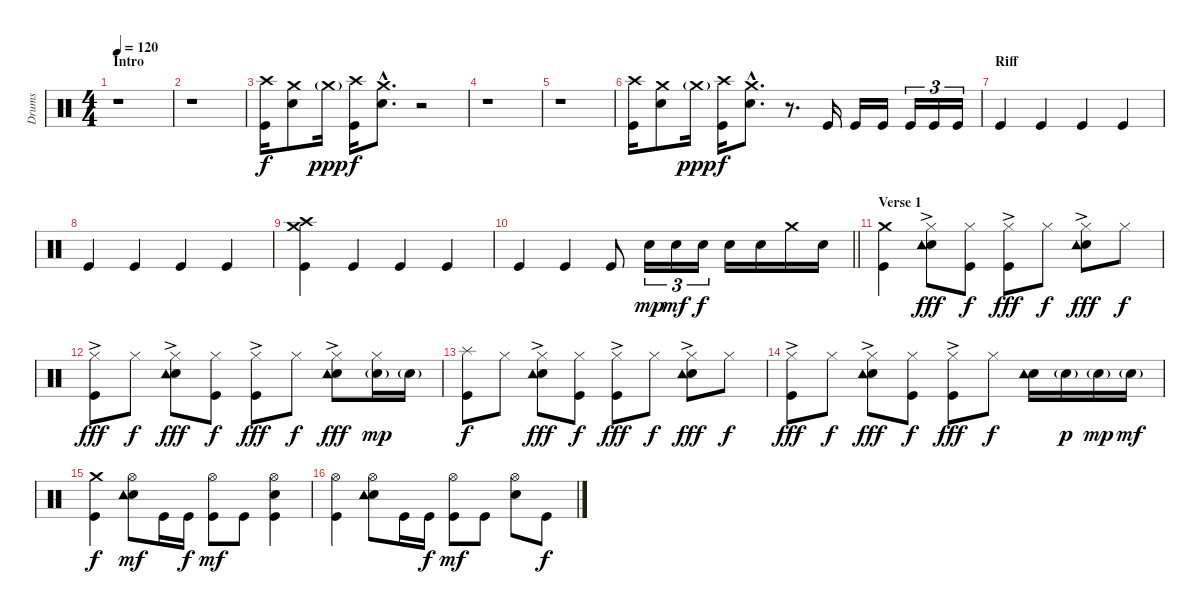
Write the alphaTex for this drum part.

\track ("Drums" "Drums") {instrument percussion}
\staff {score}
\articulation defaults
\ts (4 4)
\section ("" "Intro")
\tempo 120
\clef neutral
\ks c
r.1{dy f} |
r.1 |
("Crash high (hit)" "Kick (hit)").16 ("Crash medium (hit)" "Electric Snare (hit)").8 "Crash medium (hit)"{g}.16{dy ppp} ("Crash high (hit)" "Kick (hit)").16{dy f} ("Crash medium (hit)"{hac} "Electric Snare (hit)"{hac}).8{d} r.2 |
r.1 |
r.1 |
("Crash high (hit)" "Kick (hit)").16 ("Crash medium (hit)" "Electric Snare (hit)").8 "Crash medium (hit)"{g}.16{dy ppp} ("Crash high (hit)" "Kick (hit)").16{dy f} ("Crash medium (hit)"{hac} "Electric Snare (hit)"{hac}).8{d} r.8{d} "Kick (hit)".16 "Kick (hit)".16 "Kick (hit)".16 "Kick (hit)".16{tu (3 2)} "Kick (hit)".16{tu (3 2)} "Kick (hit)".16{tu (3 2)} |
\section ("" "Riff")
"Kick (hit)".4 "Kick (hit)".4 "Kick (hit)".4 "Kick (hit)".4 |
"Kick (hit)".4 "Kick (hit)".4 "Kick (hit)".4 "Kick (hit)".4 |
("Crash medium (hit)" "Crash high (hit)" "Kick (hit)").4 "Kick (hit)".4 "Kick (hit)".4 "Kick (hit)".4 |
\barLineRight lightlight "Kick (hit)".4 "Kick (hit)".4 "Kick (hit)".8 "Electric Snare (hit)".16{tu (3 2) dy mp} "Electric Snare (hit)".16{tu (3 2) dy mf} "Electric Snare (hit)".16{tu (3 2) dy f} "Electric Snare (hit)".16 "Electric Snare (hit)".16 "Crash medium (hit)".16 "Electric Snare (hit)".16
|
\section ("" "Verse 1")
("Crash medium (hit)" "Kick (hit)").4 ("Hi-Hat (closed)"{ac} "Electric Snare (hit)" "Tambourine (hit)").8{dy fff} ("Hi-Hat (closed)" "Kick (hit)").8{dy f} ("Hi-Hat (closed)"{ac} "Kick (hit)").8{dy fff} "Hi-Hat (closed)".8{dy f} ("Hi-Hat (closed)"{ac} "Electric Snare (hit)" "Tambourine (hit)").8{dy fff} "Hi-Hat (closed)".8{dy f} |
("Hi-Hat (closed)"{ac} "Kick (hit)").8{dy fff} "Hi-Hat (closed)".8{dy f} ("Hi-Hat (closed)"{ac} "Electric Snare (hit)" "Tambourine (hit)").8{dy fff} ("Hi-Hat (closed)" "Kick (hit)").8{dy f} ("Hi-Hat (closed)"{ac} "Kick (hit)").8{dy fff} "Hi-Hat (closed)".8{dy f} ("Hi-Hat (closed)"{ac} "Electric Snare (hit)" "Tambourine (hit)").8{dy fff} ("Hi-Hat (closed)" "Electric Snare (hit)"{g}).16{dy mp} "Electric Snare (hit)"{g}.16 |
("Splash (hit)" "Kick (hit)").8{dy f} "Hi-Hat (closed)".8 ("Hi-Hat (closed)"{ac} "Electric Snare (hit)" "Tambourine (hit)").8{dy fff} ("Hi-Hat (closed)" "Kick (hit)").8{dy f} ("Hi-Hat (closed)"{ac} "Kick (hit)").8{dy fff} "Hi-Hat (closed)".8{dy f} ("Hi-Hat (closed)"{ac} "Electric Snare (hit)" "Tambourine (hit)").8{dy fff} "Hi-Hat (closed)".8{dy f} |
("Hi-Hat (closed)"{ac} "Kick (hit)").8{dy fff} "Hi-Hat (closed)".8{dy f} ("Hi-Hat (closed)"{ac} "Electric Snare (hit)" "Tambourine (hit)").8{dy fff} ("Hi-Hat (closed)" "Kick (hit)").8{dy f} ("Hi-Hat (closed)"{ac} "Kick (hit)").8{dy fff} "Hi-Hat (closed)".8{dy f} ("Electric Snare (hit)" "Tambourine (hit)").16 "Electric Snare (hit)"{g}.16{dy p} "Electric Snare (hit)"{g}.16{dy mp} "Electric Snare (hit)"{g}.16{dy mf} |
("Crash medium (hit)" "Kick (hit)").4{dy f} ("Hi-Hat (open)" "Electric Snare (hit)" "Tambourine (hit)").8{dy mf} "Kick (hit)".16 "Kick (hit)".16{dy f} ("Hi-Hat (open)" "Kick (hit)").8{dy mf} "Kick (hit)".8 ("Hi-Hat (open)" "Electric Snare (hit)" "Kick (hit)").4 |
("Hi-Hat (open)" "Kick (hit)").4 ("Hi-Hat (open)" "Electric Snare (hit)" "Tambourine (hit)").8 "Kick (hit)".16 "Kick (hit)".16{dy f} ("Hi-Hat (open)" "Kick (hit)").8{dy mf} "Kick (hit)".8 ("Hi-Hat (open)" "Electric Snare (hit)").8 "Kick (hit)".8{dy f}
